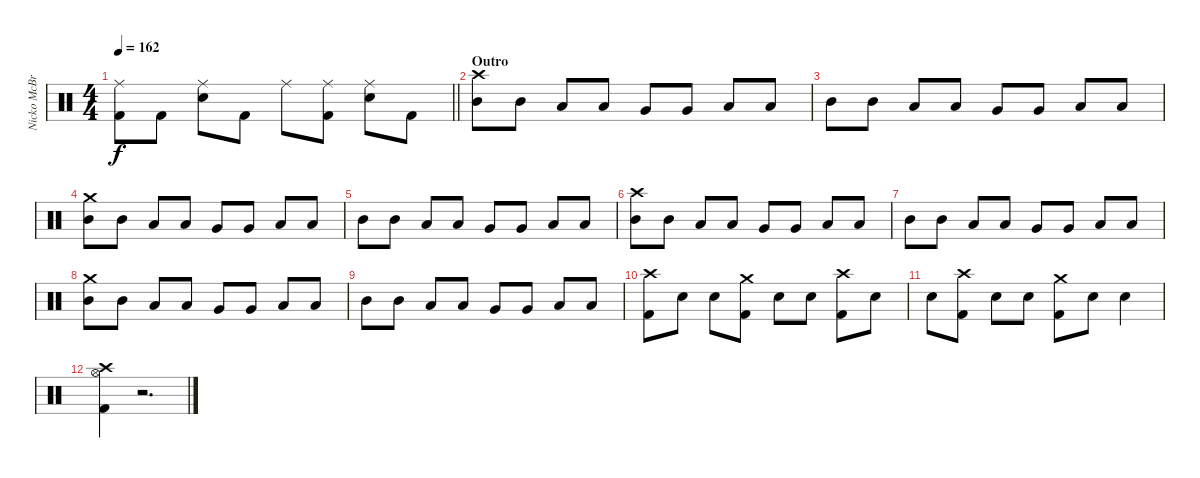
\track ("Nicko McBrain" "Nicko McBr") {instrument percussion}
\staff {score}
\articulation defaults
\ts (4 4)
\tempo 162
\clef neutral
\barLineRight lightlight
\ks c
("Kick (hit) 2" "Ride (middle)").8{dy f} "Kick (hit) 2".8 ("Electric Snare (hit)" "Ride (middle)").8 "Kick (hit) 2".8 "Ride (middle)".8 ("Kick (hit) 2" "Ride (middle)").8 ("Electric Snare (hit)" "Ride (middle)").8 "Kick (hit) 2".8 |
\section ("" "Outro")
("Mid Tom (hit)" "Crash high (hit)").8 "Mid Tom (hit)".8 "Low Tom (hit)".8 "Low Tom (hit)".8 "Very Low Tom (hit)".8 "Very Low Tom (hit)".8 "Low Tom (hit)".8 "Low Tom (hit)".8 |
"Mid Tom (hit)".8 "Mid Tom (hit)".8 "Low Tom (hit)".8 "Low Tom (hit)".8 "Very Low Tom (hit)".8 "Very Low Tom (hit)".8 "Low Floor Tom (hit)".8 "Low Floor Tom (hit)".8 |
("Mid Tom (hit)" "Crash medium (hit)").8 "Mid Tom (hit)".8 "Low Tom (hit)".8 "Low Tom (hit)".8 "Very Low Tom (hit)".8 "Very Low Tom (hit)".8 "Low Tom (hit)".8 "Low Tom (hit)".8 |
"Mid Tom (hit)".8 "Mid Tom (hit)".8 "Low Tom (hit)".8 "Low Tom (hit)".8 "Very Low Tom (hit)".8 "Very Low Tom (hit)".8 "Low Floor Tom (hit)".8 "Low Floor Tom (hit)".8 |
("Mid Tom (hit)" "Crash high (hit)").8 "Mid Tom (hit)".8 "Low Tom (hit)".8 "Low Tom (hit)".8 "Very Low Tom (hit)".8 "Very Low Tom (hit)".8 "Low Tom (hit)".8 "Low Tom (hit)".8 |
"Mid Tom (hit)".8 "Mid Tom (hit)".8 "Low Tom (hit)".8 "Low Tom (hit)".8 "Very Low Tom (hit)".8 "Very Low Tom (hit)".8 "Low Floor Tom (hit)".8 "Low Floor Tom (hit)".8 |
("Mid Tom (hit)" "Crash medium (hit)").8 "Mid Tom (hit)".8 "Low Tom (hit)".8 "Low Tom (hit)".8 "Very Low Tom (hit)".8 "Very Low Tom (hit)".8 "Low Tom (hit)".8 "Low Tom (hit)".8 |
"Mid Tom (hit)".8 "Mid Tom (hit)".8 "Low Tom (hit)".8 "Low Tom (hit)".8 "Very Low Tom (hit)".8 "Very Low Tom (hit)".8 "Low Floor Tom (hit)".8 "Low Floor Tom (hit)".8 |
("Kick (hit) 2" "Crash high (hit)").8 "Electric Snare (hit)".8 "Electric Snare (hit)".8 ("Kick (hit) 2" "Crash medium (hit)").8 "Electric Snare (hit)".8 "Electric Snare (hit)".8 ("Kick (hit) 2" "Crash high (hit)").8 "Electric Snare (hit)".8 |
"Electric Snare (hit)".8 ("Kick (hit) 2" "Crash high (hit)").8 "Electric Snare (hit)".8 "Electric Snare (hit)".8 ("Kick (hit) 2" "Crash medium (hit)").8 "Electric Snare (hit)".8 "Electric Snare (hit)".4 |
("Kick (hit) 2" "Hi-Hat (open)" "Crash high (hit)").4 r.2{d}
